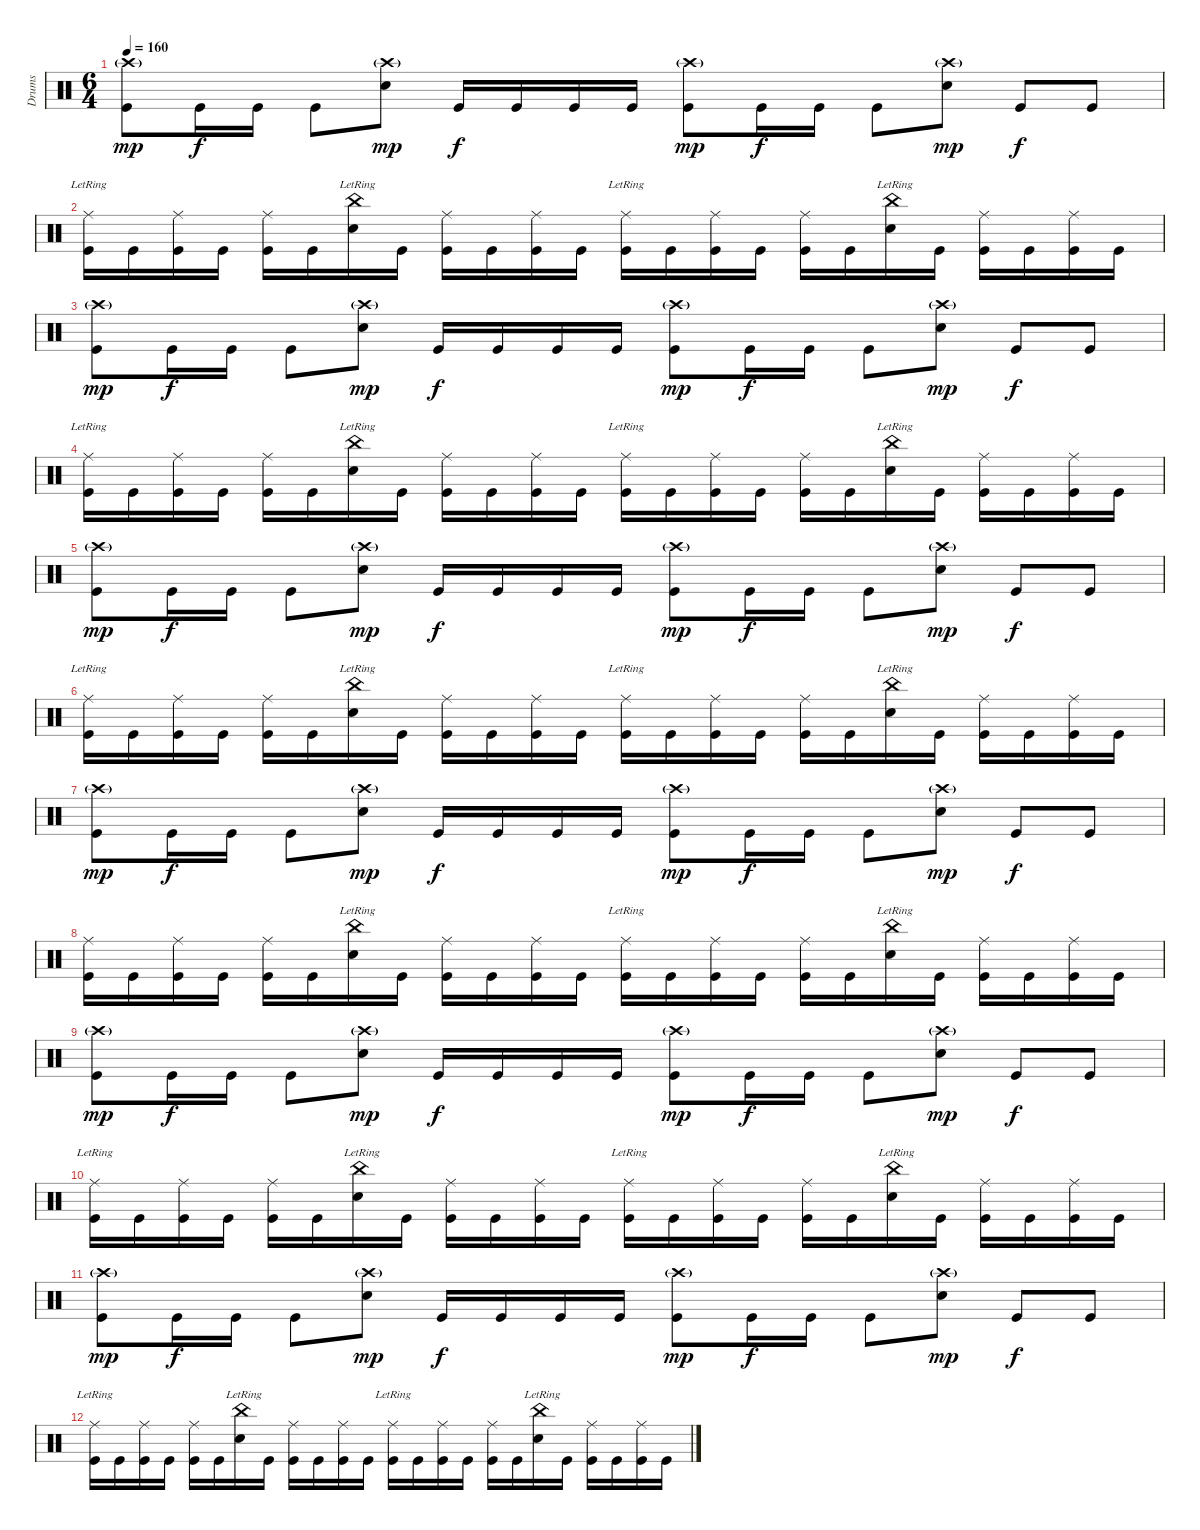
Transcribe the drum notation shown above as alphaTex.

\track ("Drums" "Drums") {instrument percussion}
\staff {score}
\articulation defaults
\ts (6 4)
\tempo 160
\clef neutral
\ks c
("Crash high (hit)"{g} "Kick (hit)").8{dy mp} "Kick (hit)".16{dy f} "Kick (hit)".16 "Kick (hit)".8 ("Crash high (hit)"{g} "Snare (hit) 2").8{dy mp} "Kick (hit)".16{dy f} "Kick (hit)".16 "Kick (hit)".16 "Kick (hit)".16 ("Crash high (hit)"{g} "Kick (hit)").8{dy mp} "Kick (hit)".16{dy f} "Kick (hit)".16 "Kick (hit)".8 ("Crash high (hit)"{g} "Snare (hit) 2").8{dy mp} "Kick (hit)".8{dy f} "Kick (hit)".8 |
("Ride (middle)" "Kick (hit)"{lr}).16 "Kick (hit)".16 ("Ride (middle)" "Kick (hit)").16 "Kick (hit)".16 ("Ride (middle)" "Kick (hit)").16 "Kick (hit)".16 ("China (hit)"{lr} "Snare (hit) 2").16 "Kick (hit)".16 ("Ride (middle)" "Kick (hit)").16 "Kick (hit)".16 ("Ride (middle)" "Kick (hit)").16 "Kick (hit)".16 ("Ride (middle)" "Kick (hit)"{lr}).16 "Kick (hit)".16 ("Ride (middle)" "Kick (hit)").16 "Kick (hit)".16 ("Ride (middle)" "Kick (hit)").16 "Kick (hit)".16 ("China (hit)"{lr} "Snare (hit) 2").16 "Kick (hit)".16 ("Ride (middle)" "Kick (hit)").16 "Kick (hit)".16 ("Ride (middle)" "Kick (hit)").16 "Kick (hit)".16 |
("Crash high (hit)"{g} "Kick (hit)").8{dy mp} "Kick (hit)".16{dy f} "Kick (hit)".16 "Kick (hit)".8 ("Crash high (hit)"{g} "Snare (hit) 2").8{dy mp} "Kick (hit)".16{dy f} "Kick (hit)".16 "Kick (hit)".16 "Kick (hit)".16 ("Crash high (hit)"{g} "Kick (hit)").8{dy mp} "Kick (hit)".16{dy f} "Kick (hit)".16 "Kick (hit)".8 ("Crash high (hit)"{g} "Snare (hit) 2").8{dy mp} "Kick (hit)".8{dy f} "Kick (hit)".8 |
("Ride (middle)" "Kick (hit)"{lr}).16 "Kick (hit)".16 ("Ride (middle)" "Kick (hit)").16 "Kick (hit)".16 ("Ride (middle)" "Kick (hit)").16 "Kick (hit)".16 ("China (hit)"{lr} "Snare (hit) 2").16 "Kick (hit)".16 ("Ride (middle)" "Kick (hit)").16 "Kick (hit)".16 ("Ride (middle)" "Kick (hit)").16 "Kick (hit)".16 ("Ride (middle)" "Kick (hit)"{lr}).16 "Kick (hit)".16 ("Ride (middle)" "Kick (hit)").16 "Kick (hit)".16 ("Ride (middle)" "Kick (hit)").16 "Kick (hit)".16 ("China (hit)"{lr} "Snare (hit) 2").16 "Kick (hit)".16 ("Ride (middle)" "Kick (hit)").16 "Kick (hit)".16 ("Ride (middle)" "Kick (hit)").16 "Kick (hit)".16 |
("Crash high (hit)"{g} "Kick (hit)").8{dy mp volume 12} "Kick (hit)".16{dy f} "Kick (hit)".16 "Kick (hit)".8 ("Crash high (hit)"{g} "Snare (hit) 2").8{dy mp} "Kick (hit)".16{dy f} "Kick (hit)".16 "Kick (hit)".16 "Kick (hit)".16 ("Crash high (hit)"{g} "Kick (hit)").8{dy mp} "Kick (hit)".16{dy f} "Kick (hit)".16 "Kick (hit)".8 ("Crash high (hit)"{g} "Snare (hit) 2").8{dy mp} "Kick (hit)".8{dy f} "Kick (hit)".8 |
("Ride (middle)" "Kick (hit)"{lr}).16{volume 11} "Kick (hit)".16 ("Ride (middle)" "Kick (hit)").16 "Kick (hit)".16 ("Ride (middle)" "Kick (hit)").16 "Kick (hit)".16 ("China (hit)"{lr} "Snare (hit) 2").16 "Kick (hit)".16 ("Ride (middle)" "Kick (hit)").16 "Kick (hit)".16 ("Ride (middle)" "Kick (hit)").16 "Kick (hit)".16 ("Ride (middle)" "Kick (hit)"{lr}).16 "Kick (hit)".16 ("Ride (middle)" "Kick (hit)").16 "Kick (hit)".16 ("Ride (middle)" "Kick (hit)").16 "Kick (hit)".16 ("China (hit)"{lr} "Snare (hit) 2").16 "Kick (hit)".16 ("Ride (middle)" "Kick (hit)").16 "Kick (hit)".16 ("Ride (middle)" "Kick (hit)").16 "Kick (hit)".16 |
("Crash high (hit)"{g} "Kick (hit)").8{dy mp volume 10} "Kick (hit)".16{dy f} "Kick (hit)".16 "Kick (hit)".8 ("Crash high (hit)"{g} "Snare (hit) 2").8{dy mp} "Kick (hit)".16{dy f} "Kick (hit)".16 "Kick (hit)".16 "Kick (hit)".16 ("Crash high (hit)"{g} "Kick (hit)").8{dy mp} "Kick (hit)".16{dy f} "Kick (hit)".16 "Kick (hit)".8 ("Crash high (hit)"{g} "Snare (hit) 2").8{dy mp} "Kick (hit)".8{dy f} "Kick (hit)".8 |
("Ride (middle)" "Kick (hit)").16 "Kick (hit)".16 ("Ride (middle)" "Kick (hit)").16 "Kick (hit)".16 ("Ride (middle)" "Kick (hit)").16 "Kick (hit)".16 ("China (hit)"{lr} "Snare (hit) 2").16 "Kick (hit)".16 ("Ride (middle)" "Kick (hit)").16 "Kick (hit)".16 ("Ride (middle)" "Kick (hit)").16 "Kick (hit)".16 ("Ride (middle)" "Kick (hit)"{lr}).16 "Kick (hit)".16 ("Ride (middle)" "Kick (hit)").16 "Kick (hit)".16 ("Ride (middle)" "Kick (hit)").16 "Kick (hit)".16 ("China (hit)"{lr} "Snare (hit) 2").16 "Kick (hit)".16 ("Ride (middle)" "Kick (hit)").16 "Kick (hit)".16 ("Ride (middle)" "Kick (hit)").16 "Kick (hit)".16 |
("Crash high (hit)"{g} "Kick (hit)").8{dy mp volume 8} "Kick (hit)".16{dy f} "Kick (hit)".16 "Kick (hit)".8 ("Crash high (hit)"{g} "Snare (hit) 2").8{dy mp} "Kick (hit)".16{dy f} "Kick (hit)".16 "Kick (hit)".16 "Kick (hit)".16 ("Crash high (hit)"{g} "Kick (hit)").8{dy mp} "Kick (hit)".16{dy f} "Kick (hit)".16 "Kick (hit)".8 ("Crash high (hit)"{g} "Snare (hit) 2").8{dy mp} "Kick (hit)".8{dy f} "Kick (hit)".8 |
("Ride (middle)" "Kick (hit)"{lr}).16{volume 7} "Kick (hit)".16 ("Ride (middle)" "Kick (hit)").16 "Kick (hit)".16 ("Ride (middle)" "Kick (hit)").16 "Kick (hit)".16 ("China (hit)"{lr} "Snare (hit) 2").16 "Kick (hit)".16 ("Ride (middle)" "Kick (hit)").16 "Kick (hit)".16 ("Ride (middle)" "Kick (hit)").16 "Kick (hit)".16 ("Ride (middle)" "Kick (hit)"{lr}).16 "Kick (hit)".16 ("Ride (middle)" "Kick (hit)").16 "Kick (hit)".16 ("Ride (middle)" "Kick (hit)").16 "Kick (hit)".16 ("China (hit)"{lr} "Snare (hit) 2").16 "Kick (hit)".16 ("Ride (middle)" "Kick (hit)").16 "Kick (hit)".16 ("Ride (middle)" "Kick (hit)").16 "Kick (hit)".16 |
("Crash high (hit)"{g} "Kick (hit)").8{dy mp volume 6} "Kick (hit)".16{dy f} "Kick (hit)".16 "Kick (hit)".8 ("Crash high (hit)"{g} "Snare (hit) 2").8{dy mp} "Kick (hit)".16{dy f} "Kick (hit)".16 "Kick (hit)".16 "Kick (hit)".16 ("Crash high (hit)"{g} "Kick (hit)").8{dy mp} "Kick (hit)".16{dy f} "Kick (hit)".16 "Kick (hit)".8 ("Crash high (hit)"{g} "Snare (hit) 2").8{dy mp} "Kick (hit)".8{dy f} "Kick (hit)".8 |
("Ride (middle)" "Kick (hit)"{lr}).16{volume 5} "Kick (hit)".16 ("Ride (middle)" "Kick (hit)").16 "Kick (hit)".16 ("Ride (middle)" "Kick (hit)").16 "Kick (hit)".16 ("China (hit)"{lr} "Snare (hit) 2").16 "Kick (hit)".16 ("Ride (middle)" "Kick (hit)").16 "Kick (hit)".16 ("Ride (middle)" "Kick (hit)").16 "Kick (hit)".16 ("Ride (middle)" "Kick (hit)"{lr}).16 "Kick (hit)".16 ("Ride (middle)" "Kick (hit)").16 "Kick (hit)".16 ("Ride (middle)" "Kick (hit)").16 "Kick (hit)".16 ("China (hit)"{lr} "Snare (hit) 2").16 "Kick (hit)".16 ("Ride (middle)" "Kick (hit)").16 "Kick (hit)".16 ("Ride (middle)" "Kick (hit)").16 "Kick (hit)".16
